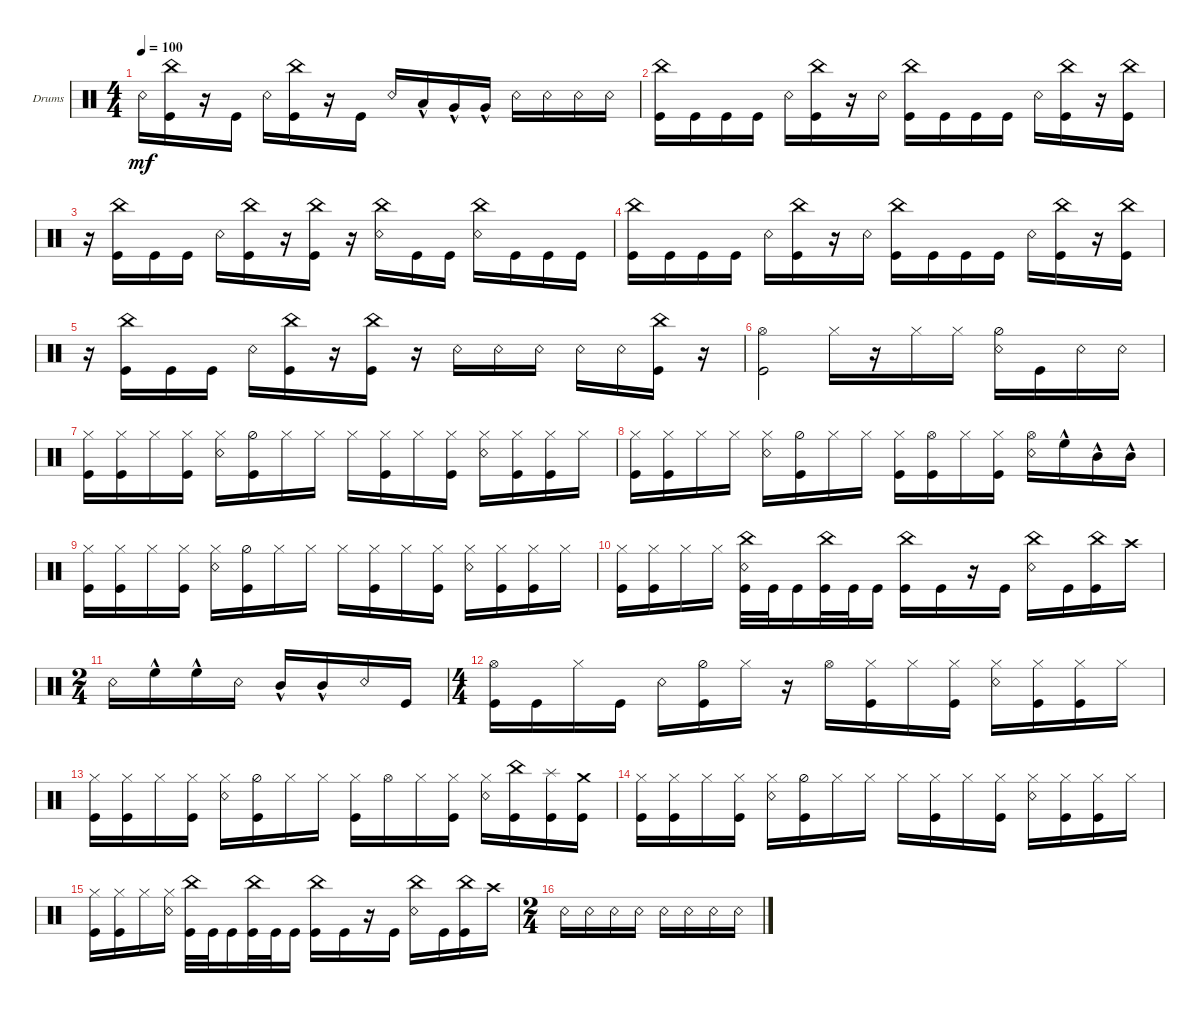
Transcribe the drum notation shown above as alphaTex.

\defaultSystemsLayout 4
\bracketExtendMode groupsimilarinstruments
\firstSystemTrackNameOrientation horizontal
\otherSystemsTrackNameOrientation horizontal
\track ("Drumkit" "Drums") {instrument percussion}
\staff {score}
\articulation defaults
\ts (4 4)
\tempo 100
\clef neutral
\ks c "Snare (rim shot)".16{dy mf}
("China (hit)" "Kick (hit)").16 r.16 "Kick (hit)".16 "Snare (rim shot)".16 ("China (hit)" "Kick (hit)").16 r.16 "Kick (hit)".16 "Snare (rim shot)".16 "Low Tom (hit)"{hac}.16 "Very Low Tom (hit)"{hac}.16 "Very Low Tom (hit)"{hac}.16 "Snare (rim shot)".16 "Snare (rim shot)".16 "Snare (rim shot)".16 "Snare (rim shot)".16 |
("Kick (hit)" "China (hit)").16 "Kick (hit)".16 "Kick (hit)".16 "Kick (hit)".16 "Snare (rim shot)".16 ("China (hit)" "Kick (hit)").16 r.16 "Snare (rim shot)".16 ("Kick (hit)" "China (hit)").16 "Kick (hit)".16 "Kick (hit)".16 "Kick (hit)".16 "Snare (rim shot)".16 ("Kick (hit)" "China (hit)").16 r.16 ("Kick (hit)" "China (hit)").16 |
r.16 ("China (hit)" "Kick (hit)").16 "Kick (hit)".16 "Kick (hit)".16 "Snare (rim shot)".16 ("Kick (hit)" "China (hit)").16 r.16 ("China (hit)" "Kick (hit)").16 r.16 ("Snare (rim shot)" "China (hit)").16 "Kick (hit)".16 "Kick (hit)".16 ("Snare (rim shot)" "China (hit)").16 "Kick (hit)".16 "Kick (hit)".16 "Kick (hit)".16 |
("Kick (hit)" "China (hit)").16 "Kick (hit)".16 "Kick (hit)".16 "Kick (hit)".16 "Snare (rim shot)".16 ("China (hit)" "Kick (hit)").16 r.16 "Snare (rim shot)".16 ("Kick (hit)" "China (hit)").16 "Kick (hit)".16 "Kick (hit)".16 "Kick (hit)".16 "Snare (rim shot)".16 ("Kick (hit)" "China (hit)").16 r.16 ("Kick (hit)" "China (hit)").16 |
r.16 ("China (hit)" "Kick (hit)").16 "Kick (hit)".16 "Kick (hit)".16 "Snare (rim shot)".16 ("Kick (hit)" "China (hit)").16 r.16 ("China (hit)" "Kick (hit)").16 r.16 "Snare (rim shot)".16 "Snare (rim shot)".16 "Snare (rim shot)".16 "Snare (rim shot)".16 "Snare (rim shot)".16 ("China (hit)" "Kick (hit)").16 r.16 |
("Kick (hit)" "Hi-Hat (open)").2 "Hi-Hat (closed)".16 r.16 "Hi-Hat (closed)".16 "Hi-Hat (closed)".16 ("Hi-Hat (half)" "Snare (rim shot)").16 "Kick (hit)".16 "Snare (rim shot)".16 "Snare (rim shot)".16 |
("Kick (hit)" "Hi-Hat (closed)").16 ("Kick (hit)" "Hi-Hat (closed)").16 "Hi-Hat (closed)".16 ("Hi-Hat (closed)" "Kick (hit)").16 ("Hi-Hat (closed)" "Snare (rim shot)").16 ("Hi-Hat (half)" "Kick (hit)").16 "Hi-Hat (closed)".16 "Hi-Hat (closed)".16 "Hi-Hat (closed)".16 ("Hi-Hat (closed)" "Kick (hit)").16 "Hi-Hat (closed)".16 ("Hi-Hat (closed)" "Kick (hit)").16 ("Hi-Hat (closed)" "Snare (rim shot)").16 ("Hi-Hat (closed)" "Kick (hit)").16 ("Hi-Hat (closed)" "Kick (hit)").16 "Hi-Hat (closed)".16 |
("Kick (hit)" "Hi-Hat (closed)").16 ("Kick (hit)" "Hi-Hat (closed)").16 "Hi-Hat (closed)".16 "Hi-Hat (closed)".16 ("Hi-Hat (closed)" "Snare (rim shot)").16 ("Hi-Hat (half)" "Kick (hit)").16 "Hi-Hat (closed)".16 "Hi-Hat (closed)".16 ("Hi-Hat (closed)" "Kick (hit)").16 ("Hi-Hat (open)" "Kick (hit)").16 "Hi-Hat (closed)".16 ("Hi-Hat (closed)" "Kick (hit)").16 ("Hi-Hat (open)" "Snare (rim shot)").16 "High Floor Tom (hit)"{hac}.16 "Mid Tom (hit)"{hac}.16 "Mid Tom (hit)"{hac}.16 |
("Kick (hit)" "Hi-Hat (closed)").16 ("Kick (hit)" "Hi-Hat (closed)").16 "Hi-Hat (closed)".16 ("Hi-Hat (closed)" "Kick (hit)").16 ("Hi-Hat (closed)" "Snare (rim shot)").16 ("Hi-Hat (half)" "Kick (hit)").16 "Hi-Hat (closed)".16 "Hi-Hat (closed)".16 "Hi-Hat (closed)".16 ("Hi-Hat (closed)" "Kick (hit)").16 "Hi-Hat (closed)".16 ("Hi-Hat (closed)" "Kick (hit)").16 ("Hi-Hat (closed)" "Snare (rim shot)").16 ("Hi-Hat (closed)" "Kick (hit)").16 ("Hi-Hat (closed)" "Kick (hit)").16 "Hi-Hat (closed)".16 |
("Kick (hit)" "Hi-Hat (closed)").16 ("Kick (hit)" "Hi-Hat (closed)").16 "Hi-Hat (closed)".16 "Hi-Hat (closed)".16 ("Kick (hit)" "China (hit)" "Snare (rim shot)").32 "Kick (hit)".32 "Kick (hit)".16 ("Kick (hit)" "China (hit)").32 "Kick (hit)".32 "Kick (hit)".16 ("China (hit)" "Kick (hit)").16 "Kick (hit)".16 r.16 "Kick (hit)".16 ("Snare (rim shot)" "China (hit)").16 "Kick (hit)".16 ("China (hit)" "Kick (hit)").16 "Crash high (hit)".16 |
\ts (2 4)
"Snare (rim shot)".16 "High Floor Tom (hit)"{hac}.16 "High Floor Tom (hit)"{hac}.16 "Snare (rim shot)".16 "Mid Tom (hit)"{hac}.16 "Mid Tom (hit)"{hac}.16 "Snare (rim shot)".16 "Kick (hit)".16 |
\ts (4 4)
("Kick (hit)" "Hi-Hat (open)").16 "Kick (hit)".16 "Hi-Hat (closed)".16 "Kick (hit)".16 "Snare (rim shot)".16 ("Hi-Hat (half)" "Kick (hit)").16 "Hi-Hat (closed)".16 r.16 "Hi-Hat (open)".16 ("Hi-Hat (closed)" "Kick (hit)").16 "Hi-Hat (closed)".16 ("Hi-Hat (closed)" "Kick (hit)").16 ("Hi-Hat (closed)" "Snare (rim shot)").16 ("Hi-Hat (closed)" "Kick (hit)").16 ("Hi-Hat (closed)" "Kick (hit)").16 "Hi-Hat (closed)".16 |
("Kick (hit)" "Hi-Hat (closed)").16 ("Kick (hit)" "Hi-Hat (closed)").16 "Hi-Hat (closed)".16 ("Hi-Hat (closed)" "Kick (hit)").16 ("Hi-Hat (closed)" "Snare (rim shot)").16 ("Hi-Hat (half)" "Kick (hit)").16 "Hi-Hat (closed)".16 "Hi-Hat (closed)".16 ("Hi-Hat (closed)" "Kick (hit)").16 "Hi-Hat (open)".16 "Hi-Hat (closed)".16 ("Hi-Hat (closed)" "Kick (hit)").16 ("Hi-Hat (closed)" "Snare (rim shot)").16 ("Kick (hit)" "China (hit)").16 ("Kick (hit)" "Splash (hit)").16 ("Crash medium (hit)" "Kick (hit)").16 |
("Kick (hit)" "Hi-Hat (closed)").16 ("Kick (hit)" "Hi-Hat (closed)").16 "Hi-Hat (closed)".16 ("Hi-Hat (closed)" "Kick (hit)").16 ("Hi-Hat (closed)" "Snare (rim shot)").16 ("Hi-Hat (half)" "Kick (hit)").16 "Hi-Hat (closed)".16 "Hi-Hat (closed)".16 "Hi-Hat (closed)".16 ("Hi-Hat (closed)" "Kick (hit)").16 "Hi-Hat (closed)".16 ("Hi-Hat (closed)" "Kick (hit)").16 ("Hi-Hat (closed)" "Snare (rim shot)").16 ("Hi-Hat (closed)" "Kick (hit)").16 ("Hi-Hat (closed)" "Kick (hit)").16 "Hi-Hat (closed)".16 |
("Kick (hit)" "Hi-Hat (closed)").16 ("Kick (hit)" "Hi-Hat (closed)").16 "Hi-Hat (closed)".16 ("Hi-Hat (closed)" "Snare (rim shot)").16 ("Kick (hit)" "China (hit)").32 "Kick (hit)".32 "Kick (hit)".16 ("Kick (hit)" "China (hit)").32 "Kick (hit)".32 "Kick (hit)".16 ("China (hit)" "Kick (hit)").16 "Kick (hit)".16 r.16 "Kick (hit)".16 ("Snare (rim shot)" "China (hit)").16 "Kick (hit)".16 ("China (hit)" "Kick (hit)").16 "Crash high (hit)".16 |
\ts (2 4)
"Snare (rim shot)".16 "Snare (rim shot)".16 "Snare (rim shot)".16 "Snare (rim shot)".16 "Snare (rim shot)".16 "Snare (rim shot)".16 "Snare (rim shot)".16 "Snare (rim shot)".16
